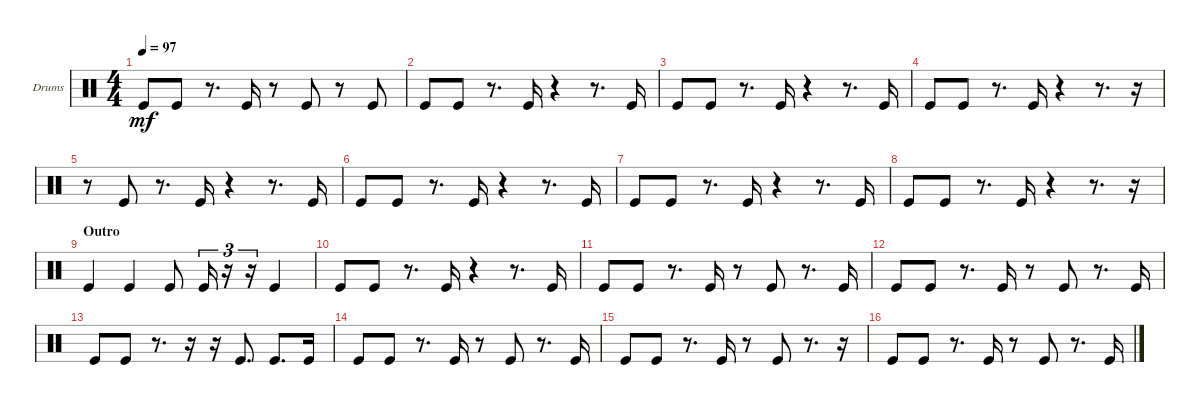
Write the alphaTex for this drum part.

\bracketExtendMode groupsimilarinstruments
\firstSystemTrackNameOrientation horizontal
\otherSystemsTrackNameOrientation horizontal
\track ("Kick" "Drums") {instrument percussion}
\staff {score}
\articulation defaults
\ts (4 4)
\tempo 97
\clef neutral
\ks c "Kick (hit)".8{dy mf} "Kick (hit)".8
r.8{d} "Kick (hit)".16 r.8 "Kick (hit)".8 r.8 "Kick (hit)".8 |
"Kick (hit)".8 "Kick (hit)".8 r.8{d} "Kick (hit)".16 r.4 r.8{d} "Kick (hit)".16 |
"Kick (hit)".8 "Kick (hit)".8 r.8{d} "Kick (hit)".16 r.4 r.8{d} "Kick (hit)".16 |
"Kick (hit)".8 "Kick (hit)".8 r.8{d} "Kick (hit)".16 r.4 r.8{d} r.16 |
r.8 "Kick (hit)".8 r.8{d} "Kick (hit)".16 r.4 r.8{d} "Kick (hit)".16 |
"Kick (hit)".8 "Kick (hit)".8 r.8{d} "Kick (hit)".16 r.4 r.8{d} "Kick (hit)".16 |
"Kick (hit)".8 "Kick (hit)".8 r.8{d} "Kick (hit)".16 r.4 r.8{d} "Kick (hit)".16 |
"Kick (hit)".8 "Kick (hit)".8 r.8{d} "Kick (hit)".16 r.4 r.8{d} r.16 |
\section ("" "Outro")
"Kick (hit)".4 "Kick (hit)".4 "Kick (hit)".8 "Kick (hit)".16{tu (3 2)} r.16{tu (3 2)} r.16{tu (3 2)} "Kick (hit)".4 |
"Kick (hit)".8 "Kick (hit)".8 r.8{d} "Kick (hit)".16 r.4 r.8{d} "Kick (hit)".16 |
"Kick (hit)".8 "Kick (hit)".8 r.8{d} "Kick (hit)".16 r.8 "Kick (hit)".8 r.8{d} "Kick (hit)".16 |
"Kick (hit)".8 "Kick (hit)".8 r.8{d} "Kick (hit)".16 r.8 "Kick (hit)".8 r.8{d} "Kick (hit)".16 |
"Kick (hit)".8 "Kick (hit)".8 r.8{d} r.16 r.16 "Kick (hit)".8{d} "Kick (hit)".8{d} "Kick (hit)".16 |
"Kick (hit)".8 "Kick (hit)".8 r.8{d} "Kick (hit)".16 r.8 "Kick (hit)".8 r.8{d} "Kick (hit)".16 |
"Kick (hit)".8 "Kick (hit)".8 r.8{d} "Kick (hit)".16 r.8 "Kick (hit)".8 r.8{d} r.16 |
"Kick (hit)".8 "Kick (hit)".8 r.8{d} "Kick (hit)".16 r.8 "Kick (hit)".8 r.8{d} "Kick (hit)".16
